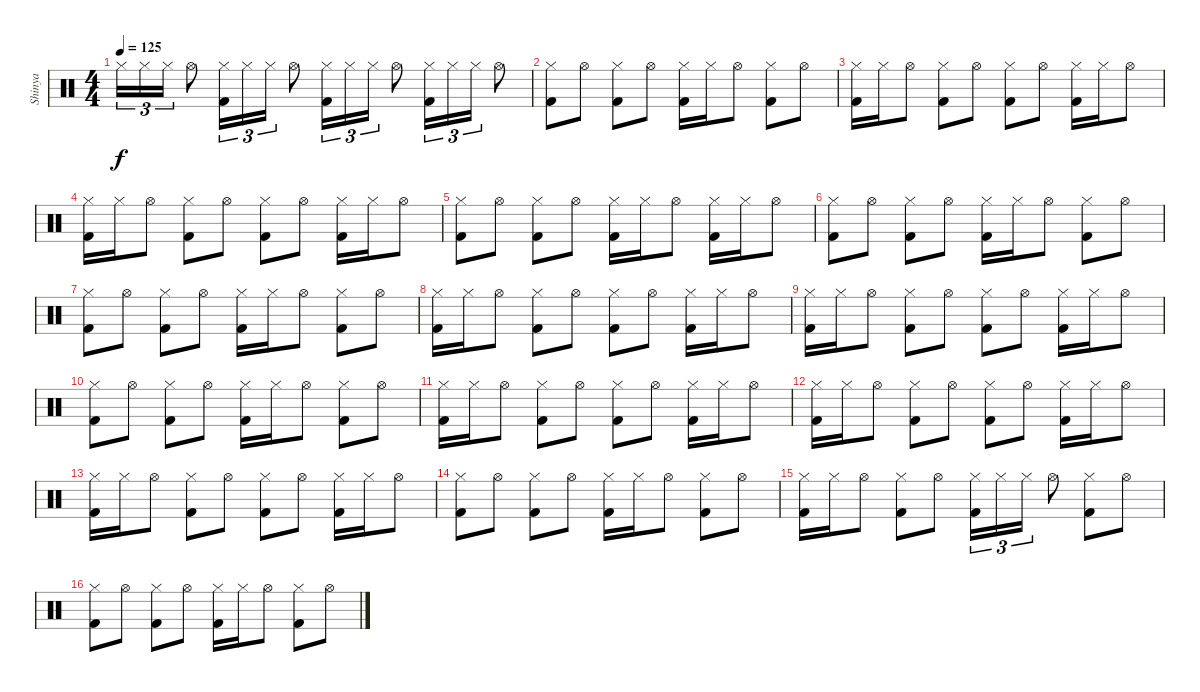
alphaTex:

\track ("Shinya" "Shinya") {instrument percussion}
\staff {score}
\articulation defaults
\ts (4 4)
\tempo 125
\clef neutral
\ks c "Hi-Hat (closed)".16{tu (3 2) dy f} "Hi-Hat (closed)".16{tu (3 2)} "Hi-Hat (closed)".16{tu (3 2)} "Hi-Hat (open)".8
("Hi-Hat (closed)" "Kick (hit) 2").16{tu (3 2)} "Hi-Hat (closed)".16{tu (3 2)} "Hi-Hat (closed)".16{tu (3 2)} "Hi-Hat (open)".8 ("Hi-Hat (closed)" "Kick (hit) 2").16{tu (3 2)} "Hi-Hat (closed)".16{tu (3 2)} "Hi-Hat (closed)".16{tu (3 2)} "Hi-Hat (open)".8 ("Hi-Hat (closed)" "Kick (hit) 2").16{tu (3 2)} "Hi-Hat (closed)".16{tu (3 2)} "Hi-Hat (closed)".16{tu (3 2)} "Hi-Hat (open)".8 |
("Hi-Hat (closed)" "Kick (hit) 2").8 "Hi-Hat (open)".8 ("Hi-Hat (closed)" "Kick (hit) 2").8 "Hi-Hat (open)".8 ("Hi-Hat (closed)" "Kick (hit) 2").16 "Hi-Hat (closed)".16 "Hi-Hat (open)".8 ("Hi-Hat (closed)" "Kick (hit) 2").8 "Hi-Hat (open)".8 |
("Hi-Hat (closed)" "Kick (hit) 2").16 "Hi-Hat (closed)".16 "Hi-Hat (open)".8 ("Hi-Hat (closed)" "Kick (hit) 2").8 "Hi-Hat (open)".8 ("Hi-Hat (closed)" "Kick (hit) 2").8 "Hi-Hat (open)".8 ("Hi-Hat (closed)" "Kick (hit) 2").16 "Hi-Hat (closed)".16 "Hi-Hat (open)".8 |
("Hi-Hat (closed)" "Kick (hit) 2").16 "Hi-Hat (closed)".16 "Hi-Hat (open)".8 ("Hi-Hat (closed)" "Kick (hit) 2").8 "Hi-Hat (open)".8 ("Hi-Hat (closed)" "Kick (hit) 2").8 "Hi-Hat (open)".8 ("Hi-Hat (closed)" "Kick (hit) 2").16 "Hi-Hat (closed)".16 "Hi-Hat (open)".8 |
("Hi-Hat (closed)" "Kick (hit) 2").8 "Hi-Hat (open)".8 ("Hi-Hat (closed)" "Kick (hit) 2").8 "Hi-Hat (open)".8 ("Hi-Hat (closed)" "Kick (hit) 2").16 "Hi-Hat (closed)".16 "Hi-Hat (open)".8 ("Hi-Hat (closed)" "Kick (hit) 2").16 "Hi-Hat (closed)".16 "Hi-Hat (open)".8 |
("Hi-Hat (closed)" "Kick (hit) 2").8 "Hi-Hat (open)".8 ("Hi-Hat (closed)" "Kick (hit) 2").8 "Hi-Hat (open)".8 ("Hi-Hat (closed)" "Kick (hit) 2").16 "Hi-Hat (closed)".16 "Hi-Hat (open)".8 ("Hi-Hat (closed)" "Kick (hit) 2").8 "Hi-Hat (open)".8 |
("Hi-Hat (closed)" "Kick (hit) 2").8 "Hi-Hat (open)".8 ("Hi-Hat (closed)" "Kick (hit) 2").8 "Hi-Hat (open)".8 ("Hi-Hat (closed)" "Kick (hit) 2").16 "Hi-Hat (closed)".16 "Hi-Hat (open)".8 ("Hi-Hat (closed)" "Kick (hit) 2").8 "Hi-Hat (open)".8 |
("Hi-Hat (closed)" "Kick (hit) 2").16 "Hi-Hat (closed)".16 "Hi-Hat (open)".8 ("Hi-Hat (closed)" "Kick (hit) 2").8 "Hi-Hat (open)".8 ("Hi-Hat (closed)" "Kick (hit) 2").8 "Hi-Hat (open)".8 ("Hi-Hat (closed)" "Kick (hit) 2").16 "Hi-Hat (closed)".16 "Hi-Hat (open)".8 |
("Hi-Hat (closed)" "Kick (hit) 2").16 "Hi-Hat (closed)".16 "Hi-Hat (open)".8 ("Hi-Hat (closed)" "Kick (hit) 2").8 "Hi-Hat (open)".8 ("Hi-Hat (closed)" "Kick (hit) 2").8 "Hi-Hat (open)".8 ("Hi-Hat (closed)" "Kick (hit) 2").16 "Hi-Hat (closed)".16 "Hi-Hat (open)".8 |
("Hi-Hat (closed)" "Kick (hit) 2").8 "Hi-Hat (open)".8 ("Hi-Hat (closed)" "Kick (hit) 2").8 "Hi-Hat (open)".8 ("Hi-Hat (closed)" "Kick (hit) 2").16 "Hi-Hat (closed)".16 "Hi-Hat (open)".8 ("Hi-Hat (closed)" "Kick (hit) 2").8 "Hi-Hat (open)".8 |
("Hi-Hat (closed)" "Kick (hit) 2").16 "Hi-Hat (closed)".16 "Hi-Hat (open)".8 ("Hi-Hat (closed)" "Kick (hit) 2").8 "Hi-Hat (open)".8 ("Hi-Hat (closed)" "Kick (hit) 2").8 "Hi-Hat (open)".8 ("Hi-Hat (closed)" "Kick (hit) 2").16 "Hi-Hat (closed)".16 "Hi-Hat (open)".8 |
("Hi-Hat (closed)" "Kick (hit) 2").16 "Hi-Hat (closed)".16 "Hi-Hat (open)".8 ("Hi-Hat (closed)" "Kick (hit) 2").8 "Hi-Hat (open)".8 ("Hi-Hat (closed)" "Kick (hit) 2").8 "Hi-Hat (open)".8 ("Hi-Hat (closed)" "Kick (hit) 2").16 "Hi-Hat (closed)".16 "Hi-Hat (open)".8 |
("Hi-Hat (closed)" "Kick (hit) 2").16 "Hi-Hat (closed)".16 "Hi-Hat (open)".8 ("Hi-Hat (closed)" "Kick (hit) 2").8 "Hi-Hat (open)".8 ("Hi-Hat (closed)" "Kick (hit) 2").8 "Hi-Hat (open)".8 ("Hi-Hat (closed)" "Kick (hit) 2").16 "Hi-Hat (closed)".16 "Hi-Hat (open)".8 |
("Hi-Hat (closed)" "Kick (hit) 2").8 "Hi-Hat (open)".8 ("Hi-Hat (closed)" "Kick (hit) 2").8 "Hi-Hat (open)".8 ("Hi-Hat (closed)" "Kick (hit) 2").16 "Hi-Hat (closed)".16 "Hi-Hat (open)".8 ("Hi-Hat (closed)" "Kick (hit) 2").8 "Hi-Hat (open)".8 |
("Hi-Hat (closed)" "Kick (hit) 2").16 "Hi-Hat (closed)".16 "Hi-Hat (open)".8 ("Hi-Hat (closed)" "Kick (hit) 2").8 "Hi-Hat (open)".8 ("Hi-Hat (closed)" "Kick (hit) 2").16{tu (3 2)} "Hi-Hat (closed)".16{tu (3 2)} "Hi-Hat (closed)".16{tu (3 2)} "Hi-Hat (open)".8 ("Hi-Hat (closed)" "Kick (hit) 2").8 "Hi-Hat (open)".8 |
("Hi-Hat (closed)" "Kick (hit) 2").8 "Hi-Hat (open)".8 ("Hi-Hat (closed)" "Kick (hit) 2").8 "Hi-Hat (open)".8 ("Hi-Hat (closed)" "Kick (hit) 2").16 "Hi-Hat (closed)".16 "Hi-Hat (open)".8 ("Hi-Hat (closed)" "Kick (hit) 2").8 "Hi-Hat (open)".8
